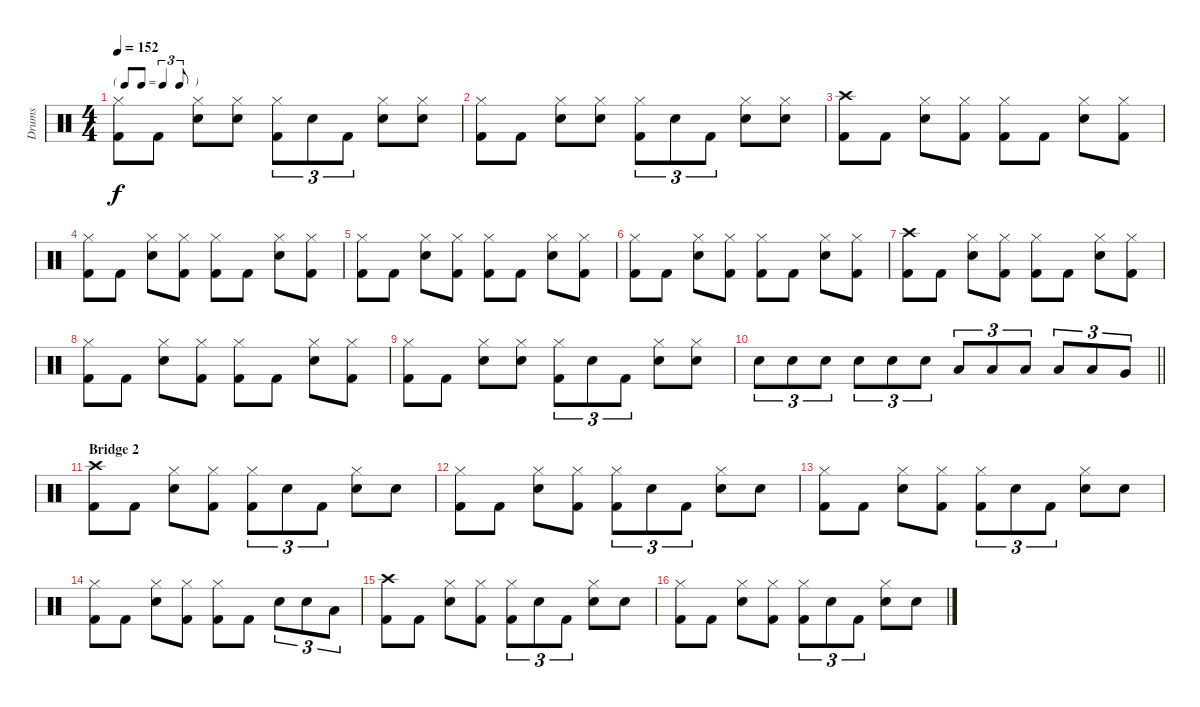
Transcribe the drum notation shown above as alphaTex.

\track ("Drums" "Drums") {instrument percussion}
\staff {score}
\articulation defaults
\ts (4 4)
\tf triplet8th
\tempo 152
\clef neutral
\ks c
("Hi-Hat (closed)" "Kick (hit) 2").8{dy f} "Kick (hit) 2".8 ("Hi-Hat (closed)" "Snare (hit) 2").8 ("Hi-Hat (closed)" "Snare (hit) 2").8 ("Hi-Hat (closed)" "Kick (hit) 2").8{tu (3 2)} "Snare (hit) 2".8{tu (3 2)} "Kick (hit) 2".8{tu (3 2)} ("Hi-Hat (closed)" "Snare (hit) 2").8 ("Hi-Hat (closed)" "Snare (hit) 2").8 |
("Hi-Hat (closed)" "Kick (hit) 2").8 "Kick (hit) 2".8 ("Hi-Hat (closed)" "Snare (hit) 2").8 ("Hi-Hat (closed)" "Snare (hit) 2").8 ("Hi-Hat (closed)" "Kick (hit) 2").8{tu (3 2)} "Snare (hit) 2".8{tu (3 2)} "Kick (hit) 2".8{tu (3 2)} ("Hi-Hat (closed)" "Snare (hit) 2").8 ("Hi-Hat (closed)" "Snare (hit) 2").8 |
("Crash high (hit)" "Kick (hit) 2").8 "Kick (hit) 2".8 ("Hi-Hat (closed)" "Snare (hit) 2").8 ("Hi-Hat (closed)" "Kick (hit) 2").8 ("Hi-Hat (closed)" "Kick (hit) 2").8 "Kick (hit) 2".8 ("Hi-Hat (closed)" "Snare (hit) 2").8 ("Hi-Hat (closed)" "Kick (hit) 2").8 |
("Hi-Hat (closed)" "Kick (hit) 2").8 "Kick (hit) 2".8 ("Hi-Hat (closed)" "Snare (hit) 2").8 ("Hi-Hat (closed)" "Kick (hit) 2").8 ("Hi-Hat (closed)" "Kick (hit) 2").8 "Kick (hit) 2".8 ("Hi-Hat (closed)" "Snare (hit) 2").8 ("Hi-Hat (closed)" "Kick (hit) 2").8 |
("Hi-Hat (closed)" "Kick (hit) 2").8 "Kick (hit) 2".8 ("Hi-Hat (closed)" "Snare (hit) 2").8 ("Hi-Hat (closed)" "Kick (hit) 2").8 ("Hi-Hat (closed)" "Kick (hit) 2").8 "Kick (hit) 2".8 ("Hi-Hat (closed)" "Snare (hit) 2").8 ("Hi-Hat (closed)" "Kick (hit) 2").8 |
("Hi-Hat (closed)" "Kick (hit) 2").8 "Kick (hit) 2".8 ("Hi-Hat (closed)" "Snare (hit) 2").8 ("Hi-Hat (closed)" "Kick (hit) 2").8 ("Hi-Hat (closed)" "Kick (hit) 2").8 "Kick (hit) 2".8 ("Hi-Hat (closed)" "Snare (hit) 2").8 ("Hi-Hat (closed)" "Kick (hit) 2").8 |
("Crash high (hit)" "Kick (hit) 2").8 "Kick (hit) 2".8 ("Hi-Hat (closed)" "Snare (hit) 2").8 ("Hi-Hat (closed)" "Kick (hit) 2").8 ("Hi-Hat (closed)" "Kick (hit) 2").8 "Kick (hit) 2".8 ("Hi-Hat (closed)" "Snare (hit) 2").8 ("Hi-Hat (closed)" "Kick (hit) 2").8 |
("Hi-Hat (closed)" "Kick (hit) 2").8 "Kick (hit) 2".8 ("Hi-Hat (closed)" "Snare (hit) 2").8 ("Hi-Hat (closed)" "Kick (hit) 2").8 ("Hi-Hat (closed)" "Kick (hit) 2").8 "Kick (hit) 2".8 ("Hi-Hat (closed)" "Snare (hit) 2").8 ("Hi-Hat (closed)" "Kick (hit) 2").8 |
("Hi-Hat (closed)" "Kick (hit) 2").8 "Kick (hit) 2".8 ("Hi-Hat (closed)" "Snare (hit) 2").8 ("Hi-Hat (closed)" "Snare (hit) 2").8 ("Hi-Hat (closed)" "Kick (hit) 2").8{tu (3 2)} "Snare (hit) 2".8{tu (3 2)} "Kick (hit) 2".8{tu (3 2)} ("Hi-Hat (closed)" "Snare (hit) 2").8 ("Hi-Hat (closed)" "Snare (hit) 2").8 |
\barLineRight lightlight "Snare (hit) 2".8{tu (3 2)} "Snare (hit) 2".8{tu (3 2)} "Snare (hit) 2".8{tu (3 2)} "Snare (hit) 2".8{tu (3 2)} "Snare (hit) 2".8{tu (3 2)} "Snare (hit) 2".8{tu (3 2)} "Low Tom (hit)".8{tu (3 2)} "Low Tom (hit)".8{tu (3 2)} "Low Tom (hit)".8{tu (3 2)} "Low Tom (hit)".8{tu (3 2)} "Low Tom (hit)".8{tu (3 2)} "Very Low Tom (hit)".8{tu (3 2)}
|
\section ("" "Bridge 2")
("Crash high (hit)" "Kick (hit) 2").8 "Kick (hit) 2".8 ("Hi-Hat (closed)" "Snare (hit) 2").8 ("Hi-Hat (closed)" "Kick (hit) 2").8 ("Hi-Hat (closed)" "Kick (hit) 2").8{tu (3 2)} "Snare (hit) 2".8{tu (3 2)} "Kick (hit) 2".8{tu (3 2)} ("Hi-Hat (closed)" "Snare (hit) 2").8 "Snare (hit) 2".8 |
("Hi-Hat (closed)" "Kick (hit) 2").8 "Kick (hit) 2".8 ("Hi-Hat (closed)" "Snare (hit) 2").8 ("Hi-Hat (closed)" "Kick (hit) 2").8 ("Hi-Hat (closed)" "Kick (hit) 2").8{tu (3 2)} "Snare (hit) 2".8{tu (3 2)} "Kick (hit) 2".8{tu (3 2)} ("Hi-Hat (closed)" "Snare (hit) 2").8 "Snare (hit) 2".8 |
("Hi-Hat (closed)" "Kick (hit) 2").8 "Kick (hit) 2".8 ("Hi-Hat (closed)" "Snare (hit) 2").8 ("Hi-Hat (closed)" "Kick (hit) 2").8 ("Hi-Hat (closed)" "Kick (hit) 2").8{tu (3 2)} "Snare (hit) 2".8{tu (3 2)} "Kick (hit) 2".8{tu (3 2)} ("Hi-Hat (closed)" "Snare (hit) 2").8 "Snare (hit) 2".8 |
("Hi-Hat (closed)" "Kick (hit) 2").8 "Kick (hit) 2".8 ("Hi-Hat (closed)" "Snare (hit) 2").8 ("Hi-Hat (closed)" "Kick (hit) 2").8 ("Hi-Hat (closed)" "Kick (hit) 2").8 "Kick (hit) 2".8 "Snare (hit) 2".8{tu (3 2)} "Snare (hit) 2".8{tu (3 2)} "Low Tom (hit)".8{tu (3 2)} |
("Crash high (hit)" "Kick (hit) 2").8 "Kick (hit) 2".8 ("Hi-Hat (closed)" "Snare (hit) 2").8 ("Hi-Hat (closed)" "Kick (hit) 2").8 ("Hi-Hat (closed)" "Kick (hit) 2").8{tu (3 2)} "Snare (hit) 2".8{tu (3 2)} "Kick (hit) 2".8{tu (3 2)} ("Hi-Hat (closed)" "Snare (hit) 2").8 "Snare (hit) 2".8 |
("Hi-Hat (closed)" "Kick (hit) 2").8 "Kick (hit) 2".8 ("Hi-Hat (closed)" "Snare (hit) 2").8 ("Hi-Hat (closed)" "Kick (hit) 2").8 ("Hi-Hat (closed)" "Kick (hit) 2").8{tu (3 2)} "Snare (hit) 2".8{tu (3 2)} "Kick (hit) 2".8{tu (3 2)} ("Hi-Hat (closed)" "Snare (hit) 2").8 "Snare (hit) 2".8
